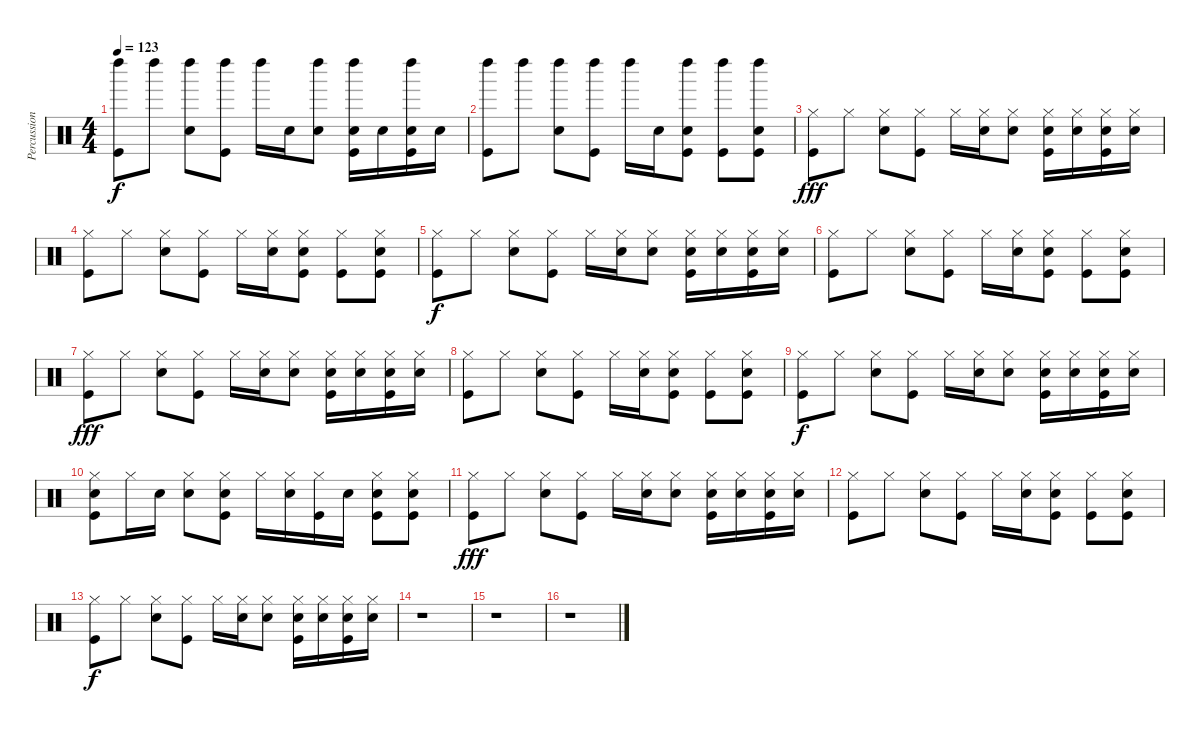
\track ("Percussion" "Percussion") {instrument percussion}
\staff {score}
\articulation defaults
\ts (4 4)
\tempo 123
\clef neutral
\ks c
("Left Maraca (hit)" "Kick (hit)").8{dy f} "Left Maraca (hit)".8 ("Left Maraca (hit)" "Snare (hit) 2").8 ("Left Maraca (hit)" "Kick (hit)").8 "Left Maraca (hit)".16 "Snare (hit) 2".16 ("Left Maraca (hit)" "Snare (hit) 2").8 ("Left Maraca (hit)" "Snare (hit) 2" "Kick (hit)").16 "Snare (hit) 2".16 ("Left Maraca (hit)" "Snare (hit) 2" "Kick (hit)").16 "Snare (hit) 2".16 |
("Left Maraca (hit)" "Kick (hit)").8 "Left Maraca (hit)".8 ("Left Maraca (hit)" "Snare (hit) 2").8 ("Left Maraca (hit)" "Kick (hit)").8 "Left Maraca (hit)".16 "Snare (hit) 2".16 ("Left Maraca (hit)" "Snare (hit) 2" "Kick (hit)").8 ("Left Maraca (hit)" "Kick (hit)").8 ("Left Maraca (hit)" "Snare (hit) 2" "Kick (hit)").8 |
("Hi-Hat (closed)" "Kick (hit)").8{dy fff} "Hi-Hat (closed)".8 ("Hi-Hat (closed)" "Snare (hit) 2").8 ("Hi-Hat (closed)" "Kick (hit)").8 "Hi-Hat (closed)".16 ("Hi-Hat (closed)" "Snare (hit) 2").16 ("Hi-Hat (closed)" "Snare (hit) 2").8 ("Hi-Hat (closed)" "Snare (hit) 2" "Kick (hit)").16 ("Hi-Hat (closed)" "Snare (hit) 2").16 ("Hi-Hat (closed)" "Snare (hit) 2" "Kick (hit)").16 ("Hi-Hat (closed)" "Snare (hit) 2").16 |
("Hi-Hat (closed)" "Kick (hit)").8 "Hi-Hat (closed)".8 ("Hi-Hat (closed)" "Snare (hit) 2").8 ("Hi-Hat (closed)" "Kick (hit)").8 "Hi-Hat (closed)".16 ("Hi-Hat (closed)" "Snare (hit) 2").16 ("Hi-Hat (closed)" "Snare (hit) 2" "Kick (hit)").8 ("Hi-Hat (closed)" "Kick (hit)").8 ("Hi-Hat (closed)" "Snare (hit) 2" "Kick (hit)").8 |
("Hi-Hat (closed)" "Kick (hit)").8{dy f} "Hi-Hat (closed)".8 ("Hi-Hat (closed)" "Snare (hit) 2").8 ("Hi-Hat (closed)" "Kick (hit)").8 "Hi-Hat (closed)".16 ("Hi-Hat (closed)" "Snare (hit) 2").16 ("Hi-Hat (closed)" "Snare (hit) 2").8 ("Hi-Hat (closed)" "Snare (hit) 2" "Kick (hit)").16 ("Hi-Hat (closed)" "Snare (hit) 2").16 ("Hi-Hat (closed)" "Snare (hit) 2" "Kick (hit)").16 ("Hi-Hat (closed)" "Snare (hit) 2").16 |
("Hi-Hat (closed)" "Kick (hit)").8 "Hi-Hat (closed)".8 ("Hi-Hat (closed)" "Snare (hit) 2").8 ("Hi-Hat (closed)" "Kick (hit)").8 "Hi-Hat (closed)".16 ("Hi-Hat (closed)" "Snare (hit) 2").16 ("Hi-Hat (closed)" "Snare (hit) 2" "Kick (hit)").8 ("Hi-Hat (closed)" "Kick (hit)").8 ("Hi-Hat (closed)" "Snare (hit) 2" "Kick (hit)").8 |
("Hi-Hat (closed)" "Kick (hit)").8{dy fff} "Hi-Hat (closed)".8 ("Hi-Hat (closed)" "Snare (hit) 2").8 ("Hi-Hat (closed)" "Kick (hit)").8 "Hi-Hat (closed)".16 ("Hi-Hat (closed)" "Snare (hit) 2").16 ("Hi-Hat (closed)" "Snare (hit) 2").8 ("Hi-Hat (closed)" "Snare (hit) 2" "Kick (hit)").16 ("Hi-Hat (closed)" "Snare (hit) 2").16 ("Hi-Hat (closed)" "Snare (hit) 2" "Kick (hit)").16 ("Hi-Hat (closed)" "Snare (hit) 2").16 |
("Hi-Hat (closed)" "Kick (hit)").8 "Hi-Hat (closed)".8 ("Hi-Hat (closed)" "Snare (hit) 2").8 ("Hi-Hat (closed)" "Kick (hit)").8 "Hi-Hat (closed)".16 ("Hi-Hat (closed)" "Snare (hit) 2").16 ("Hi-Hat (closed)" "Snare (hit) 2" "Kick (hit)").8 ("Hi-Hat (closed)" "Kick (hit)").8 ("Hi-Hat (closed)" "Snare (hit) 2" "Kick (hit)").8 |
("Hi-Hat (closed)" "Kick (hit)").8{dy f} "Hi-Hat (closed)".8 ("Hi-Hat (closed)" "Snare (hit) 2").8 ("Hi-Hat (closed)" "Kick (hit)").8 "Hi-Hat (closed)".16 ("Hi-Hat (closed)" "Snare (hit) 2").16 ("Hi-Hat (closed)" "Snare (hit) 2").8 ("Hi-Hat (closed)" "Snare (hit) 2" "Kick (hit)").16 ("Hi-Hat (closed)" "Snare (hit) 2").16 ("Hi-Hat (closed)" "Snare (hit) 2" "Kick (hit)").16 ("Hi-Hat (closed)" "Snare (hit) 2").16 |
("Hi-Hat (closed)" "Snare (hit) 2" "Kick (hit)").8 "Hi-Hat (closed)".16 "Snare (hit) 2".16 ("Hi-Hat (closed)" "Snare (hit) 2").8 ("Hi-Hat (closed)" "Snare (hit) 2" "Kick (hit)").8 "Hi-Hat (closed)".16 ("Hi-Hat (closed)" "Snare (hit) 2").16 ("Hi-Hat (closed)" "Kick (hit)").16 "Snare (hit) 2".16 ("Hi-Hat (closed)" "Snare (hit) 2" "Kick (hit)").8 ("Hi-Hat (closed)" "Snare (hit) 2" "Kick (hit)").8 |
("Hi-Hat (closed)" "Kick (hit)").8{dy fff} "Hi-Hat (closed)".8 ("Hi-Hat (closed)" "Snare (hit) 2").8 ("Hi-Hat (closed)" "Kick (hit)").8 "Hi-Hat (closed)".16 ("Hi-Hat (closed)" "Snare (hit) 2").16 ("Hi-Hat (closed)" "Snare (hit) 2").8 ("Hi-Hat (closed)" "Snare (hit) 2" "Kick (hit)").16 ("Hi-Hat (closed)" "Snare (hit) 2").16 ("Hi-Hat (closed)" "Snare (hit) 2" "Kick (hit)").16 ("Hi-Hat (closed)" "Snare (hit) 2").16 |
("Hi-Hat (closed)" "Kick (hit)").8 "Hi-Hat (closed)".8 ("Hi-Hat (closed)" "Snare (hit) 2").8 ("Hi-Hat (closed)" "Kick (hit)").8 "Hi-Hat (closed)".16 ("Hi-Hat (closed)" "Snare (hit) 2").16 ("Hi-Hat (closed)" "Snare (hit) 2" "Kick (hit)").8 ("Hi-Hat (closed)" "Kick (hit)").8 ("Hi-Hat (closed)" "Snare (hit) 2" "Kick (hit)").8 |
("Hi-Hat (closed)" "Kick (hit)").8{dy f} "Hi-Hat (closed)".8 ("Hi-Hat (closed)" "Snare (hit) 2").8 ("Hi-Hat (closed)" "Kick (hit)").8 "Hi-Hat (closed)".16 ("Hi-Hat (closed)" "Snare (hit) 2").16 ("Hi-Hat (closed)" "Snare (hit) 2").8 ("Hi-Hat (closed)" "Snare (hit) 2" "Kick (hit)").16 ("Hi-Hat (closed)" "Snare (hit) 2").16 ("Hi-Hat (closed)" "Snare (hit) 2" "Kick (hit)").16 ("Hi-Hat (closed)" "Snare (hit) 2").16 |
r.1 |
r.1 |
r.1
